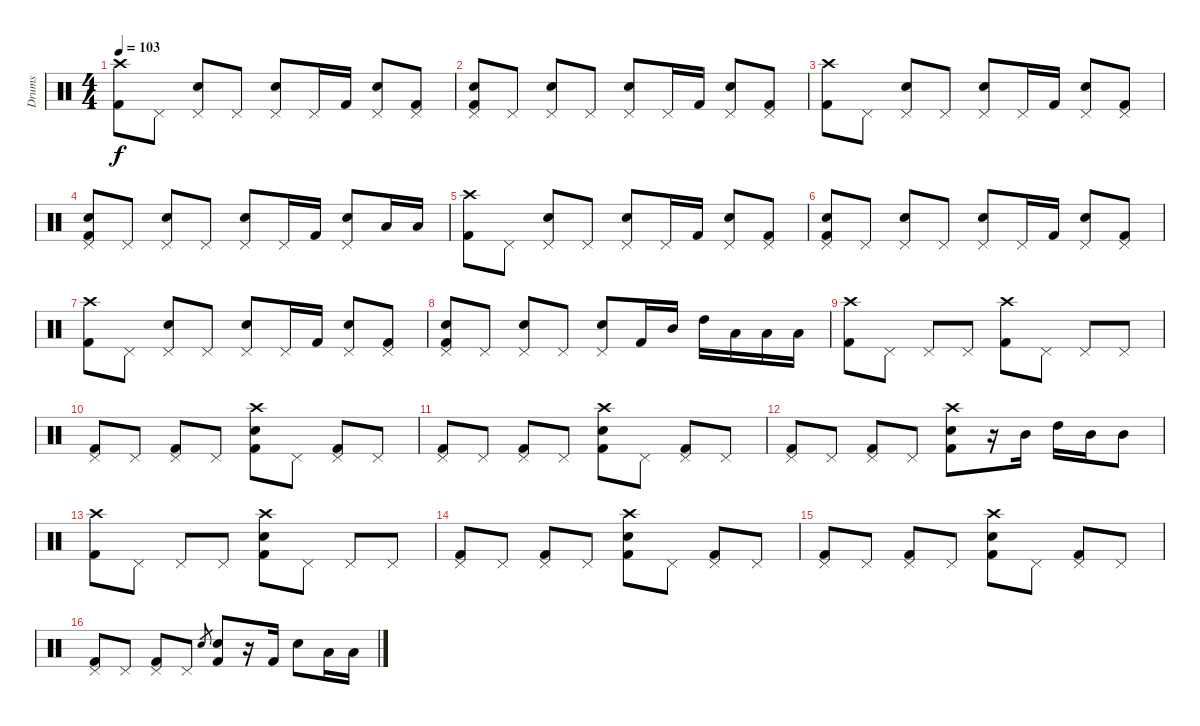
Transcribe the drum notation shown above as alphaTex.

\track ("Drums" "Drums") {instrument percussion}
\staff {score}
\articulation defaults
\ts (4 4)
\tempo 103
\clef neutral
\ks c
("Crash high (hit)" "Kick (hit) 2").8{dy f} "Pedal Hi-Hat (hit)".8 ("Pedal Hi-Hat (hit)" "Electric Snare (hit)").8 "Pedal Hi-Hat (hit)".8 ("Pedal Hi-Hat (hit)" "Electric Snare (hit)").8 "Pedal Hi-Hat (hit)".16 "Kick (hit) 2".16 ("Pedal Hi-Hat (hit)" "Electric Snare (hit)").8 ("Pedal Hi-Hat (hit)" "Kick (hit) 2").8 |
("Pedal Hi-Hat (hit)" "Electric Snare (hit)" "Kick (hit) 2").8 "Pedal Hi-Hat (hit)".8 ("Pedal Hi-Hat (hit)" "Electric Snare (hit)").8 "Pedal Hi-Hat (hit)".8 ("Pedal Hi-Hat (hit)" "Electric Snare (hit)").8 "Pedal Hi-Hat (hit)".16 "Kick (hit) 2".16 ("Pedal Hi-Hat (hit)" "Electric Snare (hit)").8 ("Pedal Hi-Hat (hit)" "Kick (hit) 2").8 |
("Crash high (hit)" "Kick (hit) 2").8 "Pedal Hi-Hat (hit)".8 ("Pedal Hi-Hat (hit)" "Electric Snare (hit)").8 "Pedal Hi-Hat (hit)".8 ("Pedal Hi-Hat (hit)" "Electric Snare (hit)").8 "Pedal Hi-Hat (hit)".16 "Kick (hit) 2".16 ("Pedal Hi-Hat (hit)" "Electric Snare (hit)").8 ("Pedal Hi-Hat (hit)" "Kick (hit) 2").8 |
("Pedal Hi-Hat (hit)" "Electric Snare (hit)" "Kick (hit) 2").8 "Pedal Hi-Hat (hit)".8 ("Pedal Hi-Hat (hit)" "Electric Snare (hit)").8 "Pedal Hi-Hat (hit)".8 ("Pedal Hi-Hat (hit)" "Electric Snare (hit)").8 "Pedal Hi-Hat (hit)".16 "Kick (hit) 2".16 ("Pedal Hi-Hat (hit)" "Electric Snare (hit)").8 "Low Tom (hit)".16 "Low Tom (hit)".16 |
("Crash high (hit)" "Kick (hit) 2").8 "Pedal Hi-Hat (hit)".8 ("Pedal Hi-Hat (hit)" "Electric Snare (hit)").8 "Pedal Hi-Hat (hit)".8 ("Pedal Hi-Hat (hit)" "Electric Snare (hit)").8 "Pedal Hi-Hat (hit)".16 "Kick (hit) 2".16 ("Pedal Hi-Hat (hit)" "Electric Snare (hit)").8 ("Pedal Hi-Hat (hit)" "Kick (hit) 2").8 |
("Pedal Hi-Hat (hit)" "Electric Snare (hit)" "Kick (hit) 2").8 "Pedal Hi-Hat (hit)".8 ("Pedal Hi-Hat (hit)" "Electric Snare (hit)").8 "Pedal Hi-Hat (hit)".8 ("Pedal Hi-Hat (hit)" "Electric Snare (hit)").8 "Pedal Hi-Hat (hit)".16 "Kick (hit) 2".16 ("Pedal Hi-Hat (hit)" "Electric Snare (hit)").8 ("Pedal Hi-Hat (hit)" "Kick (hit) 2").8 |
("Crash high (hit)" "Kick (hit) 2").8 "Pedal Hi-Hat (hit)".8 ("Pedal Hi-Hat (hit)" "Electric Snare (hit)").8 "Pedal Hi-Hat (hit)".8 ("Pedal Hi-Hat (hit)" "Electric Snare (hit)").8 "Pedal Hi-Hat (hit)".16 "Kick (hit) 2".16 ("Pedal Hi-Hat (hit)" "Electric Snare (hit)").8 ("Pedal Hi-Hat (hit)" "Kick (hit) 2").8 |
("Pedal Hi-Hat (hit)" "Electric Snare (hit)" "Kick (hit) 2").8 "Pedal Hi-Hat (hit)".8 ("Pedal Hi-Hat (hit)" "Electric Snare (hit)").8 "Pedal Hi-Hat (hit)".8 ("Pedal Hi-Hat (hit)" "Electric Snare (hit)").8 "Kick (hit) 2".16 "Mid Tom (hit)".16 "High Tom (hit)".16 "Low Tom (hit)".16 "Low Tom (hit)".16 "Low Tom (hit)".16 |
("Crash high (hit)" "Kick (hit) 2").8 "Pedal Hi-Hat (hit)".8 "Pedal Hi-Hat (hit)".8 "Pedal Hi-Hat (hit)".8 ("Crash high (hit)" "Kick (hit) 2").8 "Pedal Hi-Hat (hit)".8 "Pedal Hi-Hat (hit)".8 "Pedal Hi-Hat (hit)".8 |
("Pedal Hi-Hat (hit)" "Kick (hit) 2").8 "Pedal Hi-Hat (hit)".8 ("Pedal Hi-Hat (hit)" "Kick (hit) 2").8 "Pedal Hi-Hat (hit)".8 ("Crash high (hit)" "Electric Snare (hit)" "Kick (hit) 2").8 "Pedal Hi-Hat (hit)".8 ("Pedal Hi-Hat (hit)" "Kick (hit) 2").8 "Pedal Hi-Hat (hit)".8 |
("Pedal Hi-Hat (hit)" "Kick (hit) 2").8 "Pedal Hi-Hat (hit)".8 ("Pedal Hi-Hat (hit)" "Kick (hit) 2").8 "Pedal Hi-Hat (hit)".8 ("Crash high (hit)" "Electric Snare (hit)" "Kick (hit) 2").8 "Pedal Hi-Hat (hit)".8 ("Pedal Hi-Hat (hit)" "Kick (hit) 2").8 "Pedal Hi-Hat (hit)".8 |
("Pedal Hi-Hat (hit)" "Kick (hit) 2").8 "Pedal Hi-Hat (hit)".8 ("Pedal Hi-Hat (hit)" "Kick (hit) 2").8 "Pedal Hi-Hat (hit)".8 ("Crash high (hit)" "Electric Snare (hit)" "Kick (hit) 2").8 r.16 "Mid Tom (hit)".16 "High Tom (hit)".16 "Mid Tom (hit)".16 "Mid Tom (hit)".8 |
("Crash high (hit)" "Kick (hit) 2").8 "Pedal Hi-Hat (hit)".8 "Pedal Hi-Hat (hit)".8 "Pedal Hi-Hat (hit)".8 ("Crash high (hit)" "Electric Snare (hit)" "Kick (hit) 2").8 "Pedal Hi-Hat (hit)".8 "Pedal Hi-Hat (hit)".8 "Pedal Hi-Hat (hit)".8 |
("Pedal Hi-Hat (hit)" "Kick (hit) 2").8 "Pedal Hi-Hat (hit)".8 ("Pedal Hi-Hat (hit)" "Kick (hit) 2").8 "Pedal Hi-Hat (hit)".8 ("Crash high (hit)" "Electric Snare (hit)" "Kick (hit) 2").8 "Pedal Hi-Hat (hit)".8 ("Pedal Hi-Hat (hit)" "Kick (hit) 2").8 "Pedal Hi-Hat (hit)".8 |
("Pedal Hi-Hat (hit)" "Kick (hit) 2").8 "Pedal Hi-Hat (hit)".8 ("Pedal Hi-Hat (hit)" "Kick (hit) 2").8 "Pedal Hi-Hat (hit)".8 ("Crash high (hit)" "Electric Snare (hit)" "Kick (hit) 2").8 "Pedal Hi-Hat (hit)".8 ("Pedal Hi-Hat (hit)" "Kick (hit) 2").8 "Pedal Hi-Hat (hit)".8 |
("Pedal Hi-Hat (hit)" "Kick (hit) 2").8 "Pedal Hi-Hat (hit)".8 ("Pedal Hi-Hat (hit)" "Kick (hit) 2").8 "Pedal Hi-Hat (hit)".8 "Electric Snare (hit)".8{gr} ("Electric Snare (hit)" "Kick (hit) 2").8 r.16 "Kick (hit) 2".16 "Electric Snare (hit)".8 "Low Tom (hit)".16 "Low Tom (hit)".16
